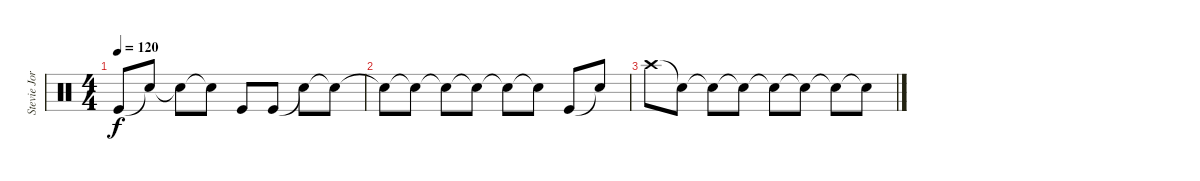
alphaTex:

\track ("Stevie Jordan" "Stevie Jor") {instrument percussion}
\staff {score}
\articulation defaults
\ts (4 4)
\tempo 120
\clef neutral
\ks c "Kick (hit)"{t}.8{dy f} "Snare (hit)"{t}.8 "Snare (hit)"{t}.8 "Snare (hit)"{t}.8 "Kick (hit)".8 "Kick (hit)".8 "Snare (hit)"{t}.8 "Snare (hit)"{t}.8
|
"Snare (hit)"{t}.8 "Snare (hit)"{t}.8 "Snare (hit)"{t}.8 "Snare (hit)"{t}.8 "Snare (hit)"{t}.8 "Snare (hit)"{t}.8 "Kick (hit)".8 "Snare (hit)"{t}.8 |
"Crash high (hit)".8 "Snare (hit)"{t}.8 "Snare (hit)"{t}.8 "Snare (hit)"{t}.8 "Snare (hit)"{t}.8 "Snare (hit)"{t}.8 "Snare (hit)"{t}.8 "Snare (hit)"{t}.8
